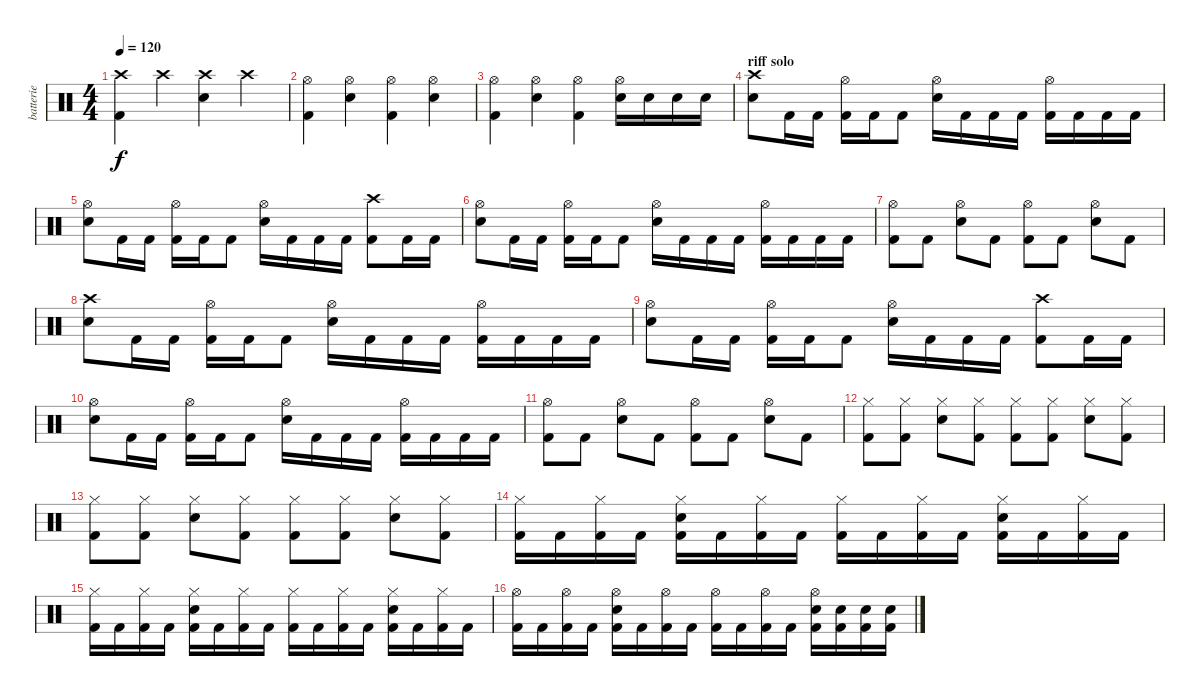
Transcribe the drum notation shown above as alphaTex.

\track ("batterie" "batterie") {instrument percussion}
\staff {score}
\articulation defaults
\ts (4 4)
\tempo 120
\clef neutral
\ks c
("Crash high (hit)" "Kick (hit) 2").4{dy f} "Crash high (hit)".4 ("Crash high (hit)" "Snare (hit) 2").4 "Crash high (hit)".4 |
("Kick (hit) 2" "Hi-Hat (open)").4 ("Snare (hit) 2" "Hi-Hat (open)").4 ("Kick (hit) 2" "Hi-Hat (open)").4 ("Snare (hit) 2" "Hi-Hat (open)").4 |
("Kick (hit) 2" "Hi-Hat (open)").4 ("Snare (hit) 2" "Hi-Hat (open)").4 ("Kick (hit) 2" "Hi-Hat (open)").4 ("Snare (hit) 2" "Hi-Hat (open)").16 "Snare (hit) 2".16 "Snare (hit) 2".16 "Snare (hit) 2".16 |
\section ("" "riff solo")
("Crash high (hit)" "Snare (hit) 2").8 "Kick (hit) 2".16 "Kick (hit) 2".16 ("Kick (hit) 2" "Hi-Hat (open)").16 "Kick (hit) 2".16 "Kick (hit) 2".8 ("Snare (hit) 2" "Hi-Hat (open)").16 "Kick (hit) 2".16 "Kick (hit) 2".16 "Kick (hit) 2".16 ("Kick (hit) 2" "Hi-Hat (open)").16 "Kick (hit) 2".16 "Kick (hit) 2".16 "Kick (hit) 2".16 |
("Snare (hit) 2" "Hi-Hat (open)").8 "Kick (hit) 2".16 "Kick (hit) 2".16 ("Kick (hit) 2" "Hi-Hat (open)").16 "Kick (hit) 2".16 "Kick (hit) 2".8 ("Snare (hit) 2" "Hi-Hat (open)").16 "Kick (hit) 2".16 "Kick (hit) 2".16 "Kick (hit) 2".16 ("Crash high (hit)" "Kick (hit) 2").8 "Kick (hit) 2".16 "Kick (hit) 2".16 |
("Snare (hit) 2" "Hi-Hat (open)").8 "Kick (hit) 2".16 "Kick (hit) 2".16 ("Kick (hit) 2" "Hi-Hat (open)").16 "Kick (hit) 2".16 "Kick (hit) 2".8 ("Snare (hit) 2" "Hi-Hat (open)").16 "Kick (hit) 2".16 "Kick (hit) 2".16 "Kick (hit) 2".16 ("Kick (hit) 2" "Hi-Hat (open)").16 "Kick (hit) 2".16 "Kick (hit) 2".16 "Kick (hit) 2".16 |
("Kick (hit) 2" "Hi-Hat (open)").8 "Kick (hit) 2".8 ("Snare (hit) 2" "Hi-Hat (open)").8 "Kick (hit) 2".8 ("Kick (hit) 2" "Hi-Hat (open)").8 "Kick (hit) 2".8 ("Snare (hit) 2" "Hi-Hat (open)").8 "Kick (hit) 2".8 |
("Crash high (hit)" "Snare (hit) 2").8 "Kick (hit) 2".16 "Kick (hit) 2".16 ("Kick (hit) 2" "Hi-Hat (open)").16 "Kick (hit) 2".16 "Kick (hit) 2".8 ("Snare (hit) 2" "Hi-Hat (open)").16 "Kick (hit) 2".16 "Kick (hit) 2".16 "Kick (hit) 2".16 ("Kick (hit) 2" "Hi-Hat (open)").16 "Kick (hit) 2".16 "Kick (hit) 2".16 "Kick (hit) 2".16 |
("Snare (hit) 2" "Hi-Hat (open)").8 "Kick (hit) 2".16 "Kick (hit) 2".16 ("Kick (hit) 2" "Hi-Hat (open)").16 "Kick (hit) 2".16 "Kick (hit) 2".8 ("Snare (hit) 2" "Hi-Hat (open)").16 "Kick (hit) 2".16 "Kick (hit) 2".16 "Kick (hit) 2".16 ("Crash high (hit)" "Kick (hit) 2").8 "Kick (hit) 2".16 "Kick (hit) 2".16 |
("Snare (hit) 2" "Hi-Hat (open)").8 "Kick (hit) 2".16 "Kick (hit) 2".16 ("Kick (hit) 2" "Hi-Hat (open)").16 "Kick (hit) 2".16 "Kick (hit) 2".8 ("Snare (hit) 2" "Hi-Hat (open)").16 "Kick (hit) 2".16 "Kick (hit) 2".16 "Kick (hit) 2".16 ("Kick (hit) 2" "Hi-Hat (open)").16 "Kick (hit) 2".16 "Kick (hit) 2".16 "Kick (hit) 2".16 |
("Kick (hit) 2" "Hi-Hat (open)").8 "Kick (hit) 2".8 ("Snare (hit) 2" "Hi-Hat (open)").8 "Kick (hit) 2".8 ("Kick (hit) 2" "Hi-Hat (open)").8 "Kick (hit) 2".8 ("Snare (hit) 2" "Hi-Hat (open)").8 "Kick (hit) 2".8 |
("Kick (hit) 2" "Hi-Hat (closed)").8 ("Kick (hit) 2" "Hi-Hat (closed)").8 ("Snare (hit) 2" "Hi-Hat (closed)").8 ("Kick (hit) 2" "Hi-Hat (closed)").8 ("Kick (hit) 2" "Hi-Hat (closed)").8 ("Kick (hit) 2" "Hi-Hat (closed)").8 ("Snare (hit) 2" "Hi-Hat (closed)").8 ("Kick (hit) 2" "Hi-Hat (closed)").8 |
("Kick (hit) 2" "Hi-Hat (closed)").8 ("Kick (hit) 2" "Hi-Hat (closed)").8 ("Snare (hit) 2" "Hi-Hat (closed)").8 ("Kick (hit) 2" "Hi-Hat (closed)").8 ("Kick (hit) 2" "Hi-Hat (closed)").8 ("Kick (hit) 2" "Hi-Hat (closed)").8 ("Snare (hit) 2" "Hi-Hat (closed)").8 ("Kick (hit) 2" "Hi-Hat (closed)").8 |
("Kick (hit) 2" "Hi-Hat (closed)").16 "Kick (hit) 2".16 ("Kick (hit) 2" "Hi-Hat (closed)").16 "Kick (hit) 2".16 ("Snare (hit) 2" "Kick (hit) 2" "Hi-Hat (closed)").16 "Kick (hit) 2".16 ("Kick (hit) 2" "Hi-Hat (closed)").16 "Kick (hit) 2".16 ("Kick (hit) 2" "Hi-Hat (closed)").16 "Kick (hit) 2".16 ("Kick (hit) 2" "Hi-Hat (closed)").16 "Kick (hit) 2".16 ("Snare (hit) 2" "Kick (hit) 2" "Hi-Hat (closed)").16 "Kick (hit) 2".16 ("Kick (hit) 2" "Hi-Hat (closed)").16 "Kick (hit) 2".16 |
("Kick (hit) 2" "Hi-Hat (closed)").16 "Kick (hit) 2".16 ("Kick (hit) 2" "Hi-Hat (closed)").16 "Kick (hit) 2".16 ("Snare (hit) 2" "Kick (hit) 2" "Hi-Hat (closed)").16 "Kick (hit) 2".16 ("Kick (hit) 2" "Hi-Hat (closed)").16 "Kick (hit) 2".16 ("Kick (hit) 2" "Hi-Hat (closed)").16 "Kick (hit) 2".16 ("Kick (hit) 2" "Hi-Hat (closed)").16 "Kick (hit) 2".16 ("Snare (hit) 2" "Kick (hit) 2" "Hi-Hat (closed)").16 "Kick (hit) 2".16 ("Kick (hit) 2" "Hi-Hat (closed)").16 "Kick (hit) 2".16 |
("Kick (hit) 2" "Hi-Hat (open)").16 "Kick (hit) 2".16 ("Kick (hit) 2" "Hi-Hat (open)").16 "Kick (hit) 2".16 ("Snare (hit) 2" "Kick (hit) 2" "Hi-Hat (open)").16 "Kick (hit) 2".16 ("Kick (hit) 2" "Hi-Hat (open)").16 "Kick (hit) 2".16 ("Kick (hit) 2" "Hi-Hat (open)").16 "Kick (hit) 2".16 ("Kick (hit) 2" "Hi-Hat (open)").16 "Kick (hit) 2".16 ("Snare (hit) 2" "Kick (hit) 2" "Hi-Hat (open)").16 ("Snare (hit) 2" "Kick (hit) 2").16 ("Snare (hit) 2" "Kick (hit) 2").16 ("Snare (hit) 2" "Kick (hit) 2").16
